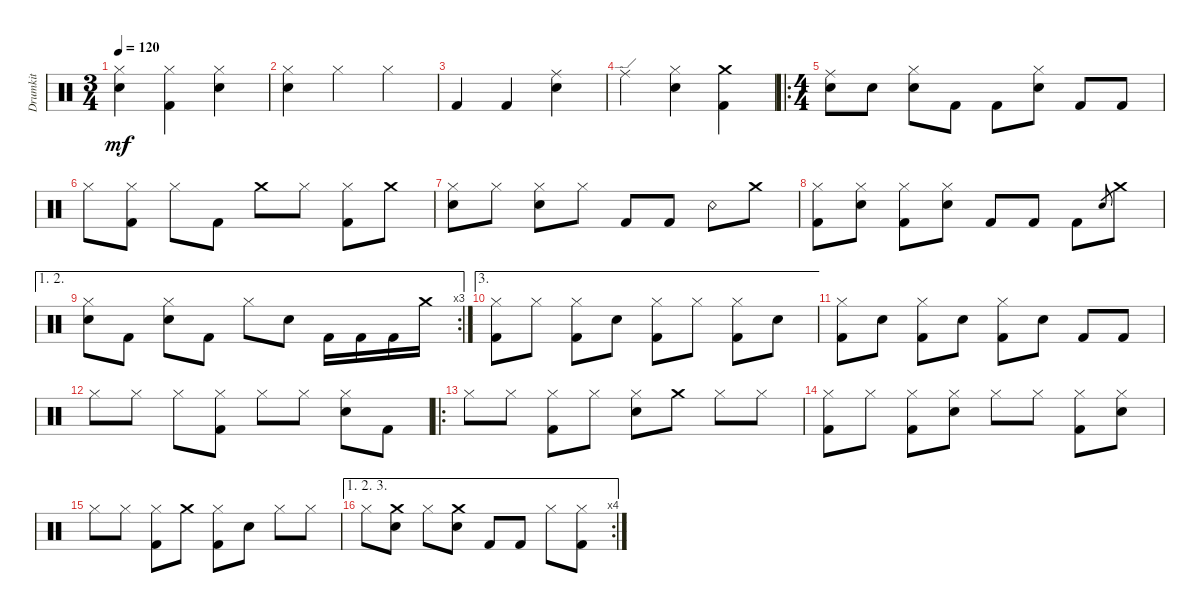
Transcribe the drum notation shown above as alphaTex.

\track ("Drumkit" "Drumkit") {instrument percussion}
\staff {score}
\articulation defaults
\ts (3 4)
\tempo 120
\clef neutral
\ks c
("Snare (hit) 2" "Hi-Hat (closed)").4{dy mf} ("Kick (hit) 2" "Hi-Hat (closed)").4 ("Hi-Hat (closed)" "Snare (hit) 2").4 |
("Hi-Hat (closed)" "Snare (hit) 2").4 "Hi-Hat (closed)".4 "Hi-Hat (closed)".4 |
"Kick (hit) 2".4 "Kick (hit) 2".4 ("Ride (middle)" "Snare (hit) 2").4 |
"Ride (edge)".4 ("Hi-Hat (closed)" "Snare (hit) 2").4 ("Kick (hit) 2" "Crash medium (hit)").4 |
\ro
\ts (4 4)
("Ride (middle)" "Snare (hit) 2").8 "Snare (hit) 2".8 ("Hi-Hat (closed)" "Snare (hit) 2").8 "Kick (hit) 2".8 "Kick (hit) 2".8 ("Hi-Hat (closed)" "Snare (hit) 2").8 "Kick (hit) 2".8 "Kick (hit) 2".8 |
"Hi-Hat (closed)".8 ("Hi-Hat (closed)" "Kick (hit) 2").8 "Hi-Hat (closed)".8 "Kick (hit) 2".8 "Crash medium (hit)".8 "Hi-Hat (closed)".8 ("Hi-Hat (closed)" "Kick (hit) 2").8 "Crash medium (hit)".8 |
("Snare (hit) 2" "Hi-Hat (closed)").8 "Hi-Hat (closed)".8 ("Hi-Hat (closed)" "Snare (hit) 2").8 "Hi-Hat (closed)".8 "Kick (hit) 2".8 "Kick (hit) 2".8 "Snare (rim shot)".8 "Crash medium (hit)".8 |
("Hi-Hat (closed)" "Kick (hit) 2").8 ("Hi-Hat (closed)" "Snare (hit) 2").8 ("Hi-Hat (closed)" "Kick (hit) 2").8 ("Hi-Hat (closed)" "Snare (hit) 2").8 "Kick (hit) 2".8 "Kick (hit) 2".8 "Kick (hit) 2".8 "Snare (hit)".8{gr} "Crash medium (hit)".8 |
\ae (1 2)
\rc 3
("Hi-Hat (closed)" "Snare (hit) 2").8 "Kick (hit) 2".8 ("Hi-Hat (closed)" "Snare (hit) 2").8 "Kick (hit) 2".8 "Hi-Hat (closed)".8 "Snare (hit) 2".8 "Kick (hit) 2".16 "Kick (hit) 2".16 "Kick (hit) 2".16 "Crash medium (hit)".16 |
\ae 3
("Hi-Hat (closed)" "Kick (hit) 2").8 "Hi-Hat (closed)".8 ("Hi-Hat (closed)" "Kick (hit) 2").8 "Snare (hit) 2".8 ("Hi-Hat (closed)" "Kick (hit) 2").8 "Hi-Hat (closed)".8 ("Hi-Hat (closed)" "Kick (hit) 2").8 "Snare (hit) 2".8 |
("Hi-Hat (closed)" "Kick (hit) 2").8 "Snare (hit) 2".8 ("Hi-Hat (closed)" "Kick (hit) 2").8 "Snare (hit) 2".8 ("Hi-Hat (closed)" "Kick (hit) 2").8 "Snare (hit) 2".8 "Kick (hit) 2".8 "Kick (hit) 2".8 |
"Hi-Hat (closed)".8 "Hi-Hat (closed)".8 "Hi-Hat (closed)".8 ("Hi-Hat (closed)" "Kick (hit) 2").8 "Hi-Hat (closed)".8 "Hi-Hat (closed)".8 ("Snare (hit) 2" "Hi-Hat (closed)").8 "Kick (hit) 2".8 |
\ro "Hi-Hat (closed)".8 "Hi-Hat (closed)".8
("Hi-Hat (closed)" "Kick (hit) 2").8 "Hi-Hat (closed)".8 ("Snare (hit) 2" "Hi-Hat (closed)").8 "Crash medium (hit)".8 "Hi-Hat (closed)".8 "Hi-Hat (closed)".8 |
("Kick (hit) 2" "Hi-Hat (closed)").8 "Hi-Hat (closed)".8 ("Hi-Hat (closed)" "Kick (hit) 2").8 ("Hi-Hat (closed)" "Snare (hit) 2").8 "Hi-Hat (closed)".8 "Hi-Hat (closed)".8 ("Kick (hit) 2" "Hi-Hat (closed)").8 ("Hi-Hat (closed)" "Snare (hit) 2").8 |
"Hi-Hat (closed)".8 "Hi-Hat (closed)".8 ("Kick (hit) 2" "Hi-Hat (closed)").8 "Crash medium (hit)".8 ("Hi-Hat (closed)" "Kick (hit) 2").8 "Snare (hit) 2".8 "Hi-Hat (closed)".8 "Hi-Hat (closed)".8 |
\ae (1 2 3)
\rc 4 "Hi-Hat (closed)".8
("Crash medium (hit)" "Snare (hit) 2").8 "Hi-Hat (closed)".8 ("Crash medium (hit)" "Snare (hit) 2").8 "Kick (hit) 2".8 "Kick (hit) 2".8 "Hi-Hat (closed)".8 ("Hi-Hat (closed)" "Kick (hit) 2").8
